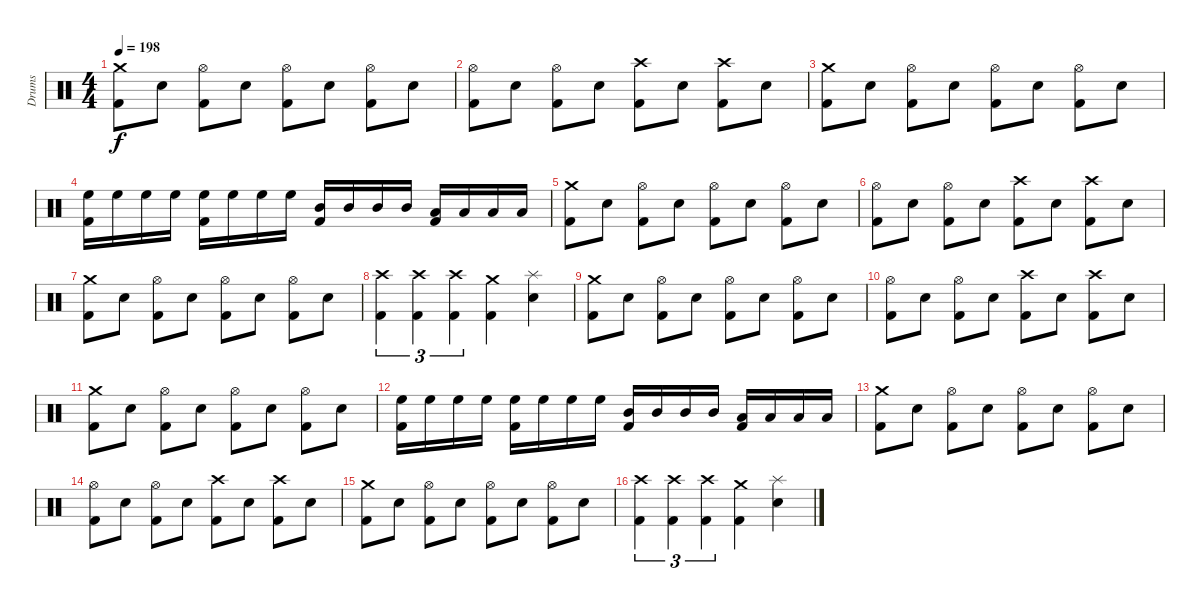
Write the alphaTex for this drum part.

\track ("Drums" "Drums") {instrument percussion}
\staff {score}
\articulation defaults
\ts (4 4)
\tempo 198
\clef neutral
\ks c
("Crash medium (hit)" "Kick (hit) 2").8{dy f} "Electric Snare (hit)".8 ("Hi-Hat (open)" "Kick (hit) 2").8 "Electric Snare (hit)".8 ("Hi-Hat (open)" "Kick (hit) 2").8 "Electric Snare (hit)".8 ("Hi-Hat (open)" "Kick (hit) 2").8 "Electric Snare (hit)".8 |
("Hi-Hat (open)" "Kick (hit) 2").8 "Electric Snare (hit)".8 ("Hi-Hat (open)" "Kick (hit) 2").8 "Electric Snare (hit)".8 ("Crash high (hit)" "Kick (hit) 2").8 "Electric Snare (hit)".8 ("Crash high (hit)" "Kick (hit) 2").8 "Electric Snare (hit)".8 |
("Crash medium (hit)" "Kick (hit) 2").8 "Electric Snare (hit)".8 ("Hi-Hat (open)" "Kick (hit) 2").8 "Electric Snare (hit)".8 ("Hi-Hat (open)" "Kick (hit) 2").8 "Electric Snare (hit)".8 ("Hi-Hat (open)" "Kick (hit) 2").8 "Electric Snare (hit)".8 |
("High Floor Tom (hit)" "Kick (hit) 2").16 "High Floor Tom (hit)".16 "High Floor Tom (hit)".16 "High Floor Tom (hit)".16 ("High Floor Tom (hit)" "Kick (hit) 2").16 "High Floor Tom (hit)".16 "High Floor Tom (hit)".16 "High Floor Tom (hit)".16 ("Mid Tom (hit)" "Kick (hit) 2").16 "Mid Tom (hit)".16 "Mid Tom (hit)".16 "Mid Tom (hit)".16 ("Low Tom (hit)" "Kick (hit) 2").16 "Low Tom (hit)".16 "Low Tom (hit)".16 "Low Tom (hit)".16 |
("Crash medium (hit)" "Kick (hit) 2").8 "Electric Snare (hit)".8 ("Hi-Hat (open)" "Kick (hit) 2").8 "Electric Snare (hit)".8 ("Hi-Hat (open)" "Kick (hit) 2").8 "Electric Snare (hit)".8 ("Hi-Hat (open)" "Kick (hit) 2").8 "Electric Snare (hit)".8 |
("Hi-Hat (open)" "Kick (hit) 2").8 "Electric Snare (hit)".8 ("Hi-Hat (open)" "Kick (hit) 2").8 "Electric Snare (hit)".8 ("Crash high (hit)" "Kick (hit) 2").8 "Electric Snare (hit)".8 ("Crash high (hit)" "Kick (hit) 2").8 "Electric Snare (hit)".8 |
("Crash medium (hit)" "Kick (hit) 2").8 "Electric Snare (hit)".8 ("Hi-Hat (open)" "Kick (hit) 2").8 "Electric Snare (hit)".8 ("Hi-Hat (open)" "Kick (hit) 2").8 "Electric Snare (hit)".8 ("Hi-Hat (open)" "Kick (hit) 2").8 "Electric Snare (hit)".8 |
("Crash high (hit)" "Kick (hit) 2").4{tu (3 2)} ("Crash high (hit)" "Kick (hit) 2").4{tu (3 2)} ("Crash high (hit)" "Kick (hit) 2").4{tu (3 2)} ("Crash medium (hit)" "Kick (hit) 2").4 ("Splash (hit)" "Electric Snare (hit)").4 |
("Crash medium (hit)" "Kick (hit) 2").8 "Electric Snare (hit)".8 ("Hi-Hat (open)" "Kick (hit) 2").8 "Electric Snare (hit)".8 ("Hi-Hat (open)" "Kick (hit) 2").8 "Electric Snare (hit)".8 ("Hi-Hat (open)" "Kick (hit) 2").8 "Electric Snare (hit)".8 |
("Hi-Hat (open)" "Kick (hit) 2").8 "Electric Snare (hit)".8 ("Hi-Hat (open)" "Kick (hit) 2").8 "Electric Snare (hit)".8 ("Crash high (hit)" "Kick (hit) 2").8 "Electric Snare (hit)".8 ("Crash high (hit)" "Kick (hit) 2").8 "Electric Snare (hit)".8 |
("Crash medium (hit)" "Kick (hit) 2").8 "Electric Snare (hit)".8 ("Hi-Hat (open)" "Kick (hit) 2").8 "Electric Snare (hit)".8 ("Hi-Hat (open)" "Kick (hit) 2").8 "Electric Snare (hit)".8 ("Hi-Hat (open)" "Kick (hit) 2").8 "Electric Snare (hit)".8 |
("High Floor Tom (hit)" "Kick (hit) 2").16 "High Floor Tom (hit)".16 "High Floor Tom (hit)".16 "High Floor Tom (hit)".16 ("High Floor Tom (hit)" "Kick (hit) 2").16 "High Floor Tom (hit)".16 "High Floor Tom (hit)".16 "High Floor Tom (hit)".16 ("Mid Tom (hit)" "Kick (hit) 2").16 "Mid Tom (hit)".16 "Mid Tom (hit)".16 "Mid Tom (hit)".16 ("Low Tom (hit)" "Kick (hit) 2").16 "Low Tom (hit)".16 "Low Tom (hit)".16 "Low Tom (hit)".16 |
("Crash medium (hit)" "Kick (hit) 2").8 "Electric Snare (hit)".8 ("Hi-Hat (open)" "Kick (hit) 2").8 "Electric Snare (hit)".8 ("Hi-Hat (open)" "Kick (hit) 2").8 "Electric Snare (hit)".8 ("Hi-Hat (open)" "Kick (hit) 2").8 "Electric Snare (hit)".8 |
("Hi-Hat (open)" "Kick (hit) 2").8 "Electric Snare (hit)".8 ("Hi-Hat (open)" "Kick (hit) 2").8 "Electric Snare (hit)".8 ("Crash high (hit)" "Kick (hit) 2").8 "Electric Snare (hit)".8 ("Crash high (hit)" "Kick (hit) 2").8 "Electric Snare (hit)".8 |
("Crash medium (hit)" "Kick (hit) 2").8 "Electric Snare (hit)".8 ("Hi-Hat (open)" "Kick (hit) 2").8 "Electric Snare (hit)".8 ("Hi-Hat (open)" "Kick (hit) 2").8 "Electric Snare (hit)".8 ("Hi-Hat (open)" "Kick (hit) 2").8 "Electric Snare (hit)".8 |
("Crash high (hit)" "Kick (hit) 2").4{tu (3 2)} ("Crash high (hit)" "Kick (hit) 2").4{tu (3 2)} ("Crash high (hit)" "Kick (hit) 2").4{tu (3 2)} ("Crash medium (hit)" "Kick (hit) 2").4 ("Splash (hit)" "Electric Snare (hit)").4
